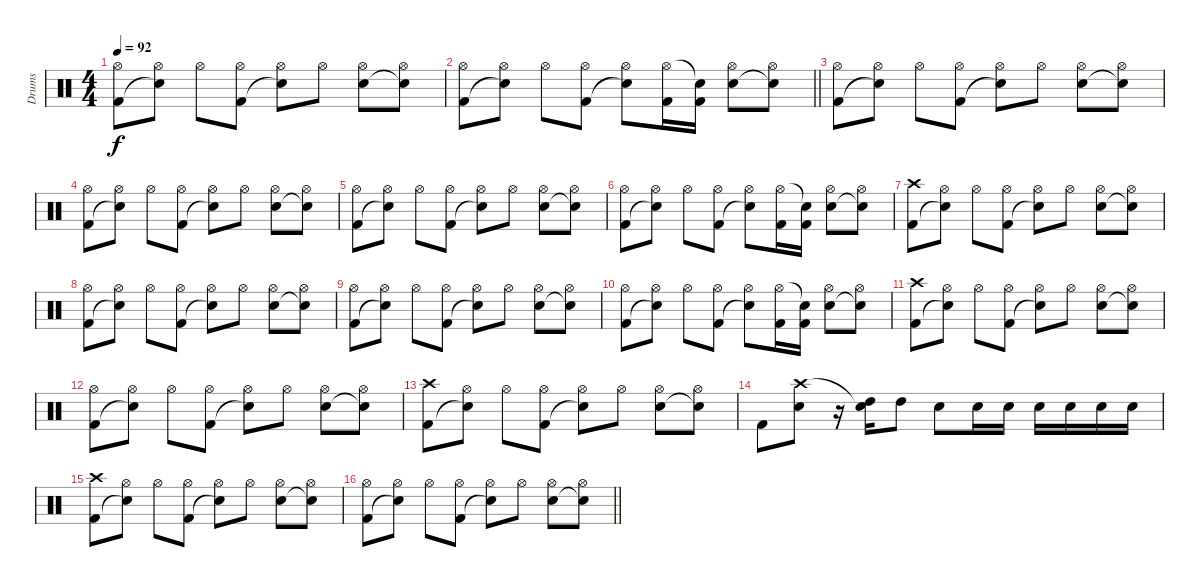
\track ("Drums" "Drums") {instrument percussion}
\staff {score}
\articulation defaults
\ts (4 4)
\tempo 92
\clef neutral
\ks c
("Hi-Hat (open)" "Kick (hit) 2").8{dy f} ("Hi-Hat (open)" "Snare (hit)"{t}).8 "Hi-Hat (open)".8 ("Hi-Hat (open)" "Kick (hit) 2").8 ("Hi-Hat (open)" "Snare (hit)"{t}).8 "Hi-Hat (open)".8 ("Hi-Hat (open)" "Snare (hit) 2").8 ("Hi-Hat (open)" "Snare (hit)"{t}).8 |
\barLineRight lightlight
("Hi-Hat (open)" "Kick (hit) 2").8 ("Hi-Hat (open)" "Snare (hit)"{t}).8 "Hi-Hat (open)".8 ("Hi-Hat (open)" "Kick (hit) 2").8 ("Hi-Hat (open)" "Snare (hit)"{t}).8 ("Hi-Hat (open)" "Kick (hit) 2").16 ("Snare (hit)"{t} "Kick (hit) 2").16 ("Hi-Hat (open)" "Snare (hit) 2").8 ("Hi-Hat (open)" "Snare (hit)"{t}).8 |
("Hi-Hat (open)" "Kick (hit) 2").8 ("Hi-Hat (open)" "Snare (hit)"{t}).8 "Hi-Hat (open)".8 ("Hi-Hat (open)" "Kick (hit) 2").8 ("Hi-Hat (open)" "Snare (hit)"{t}).8 "Hi-Hat (open)".8 ("Hi-Hat (open)" "Snare (hit) 2").8 ("Hi-Hat (open)" "Snare (hit)"{t}).8 |
("Hi-Hat (open)" "Kick (hit) 2").8 ("Hi-Hat (open)" "Snare (hit)"{t}).8 "Hi-Hat (open)".8 ("Hi-Hat (open)" "Kick (hit) 2").8 ("Hi-Hat (open)" "Snare (hit)"{t}).8 "Hi-Hat (open)".8 ("Hi-Hat (open)" "Snare (hit) 2").8 ("Hi-Hat (open)" "Snare (hit)"{t}).8 |
("Hi-Hat (open)" "Kick (hit) 2").8 ("Hi-Hat (open)" "Snare (hit)"{t}).8 "Hi-Hat (open)".8 ("Hi-Hat (open)" "Kick (hit) 2").8 ("Hi-Hat (open)" "Snare (hit)"{t}).8 "Hi-Hat (open)".8 ("Hi-Hat (open)" "Snare (hit) 2").8 ("Hi-Hat (open)" "Snare (hit)"{t}).8 |
("Hi-Hat (open)" "Kick (hit) 2").8 ("Hi-Hat (open)" "Snare (hit)"{t}).8 "Hi-Hat (open)".8 ("Hi-Hat (open)" "Kick (hit) 2").8 ("Hi-Hat (open)" "Snare (hit)"{t}).8 ("Hi-Hat (open)" "Kick (hit) 2").16 ("Snare (hit)"{t} "Kick (hit) 2").16 ("Hi-Hat (open)" "Snare (hit) 2").8 ("Hi-Hat (open)" "Snare (hit)"{t}).8 |
("Crash high (hit)" "Kick (hit) 2").8 ("Hi-Hat (open)" "Snare (hit)"{t}).8 "Hi-Hat (open)".8 ("Hi-Hat (open)" "Kick (hit) 2").8 ("Hi-Hat (open)" "Snare (hit)"{t}).8 "Hi-Hat (open)".8 ("Hi-Hat (open)" "Snare (hit) 2").8 ("Hi-Hat (open)" "Snare (hit)"{t}).8 |
("Hi-Hat (open)" "Kick (hit) 2").8 ("Hi-Hat (open)" "Snare (hit)"{t}).8 "Hi-Hat (open)".8 ("Hi-Hat (open)" "Kick (hit) 2").8 ("Hi-Hat (open)" "Snare (hit)"{t}).8 "Hi-Hat (open)".8 ("Hi-Hat (open)" "Snare (hit) 2").8 ("Hi-Hat (open)" "Snare (hit)"{t}).8 |
("Hi-Hat (open)" "Kick (hit) 2").8 ("Hi-Hat (open)" "Snare (hit)"{t}).8 "Hi-Hat (open)".8 ("Hi-Hat (open)" "Kick (hit) 2").8 ("Hi-Hat (open)" "Snare (hit)"{t}).8 "Hi-Hat (open)".8 ("Hi-Hat (open)" "Snare (hit) 2").8 ("Hi-Hat (open)" "Snare (hit)"{t}).8 |
("Hi-Hat (open)" "Kick (hit) 2").8 ("Hi-Hat (open)" "Snare (hit)"{t}).8 "Hi-Hat (open)".8 ("Hi-Hat (open)" "Kick (hit) 2").8 ("Hi-Hat (open)" "Snare (hit)"{t}).8 ("Hi-Hat (open)" "Kick (hit) 2").16 ("Snare (hit)"{t} "Kick (hit) 2").16 ("Hi-Hat (open)" "Snare (hit) 2").8 ("Hi-Hat (open)" "Snare (hit)"{t}).8 |
("Crash high (hit)" "Kick (hit) 2").8 ("Hi-Hat (open)" "Snare (hit)"{t}).8 "Hi-Hat (open)".8 ("Hi-Hat (open)" "Kick (hit) 2").8 ("Hi-Hat (open)" "Snare (hit)"{t}).8 "Hi-Hat (open)".8 ("Hi-Hat (open)" "Snare (hit) 2").8 ("Hi-Hat (open)" "Snare (hit)"{t}).8 |
("Hi-Hat (open)" "Kick (hit) 2").8 ("Hi-Hat (open)" "Snare (hit)"{t}).8 "Hi-Hat (open)".8 ("Hi-Hat (open)" "Kick (hit) 2").8 ("Hi-Hat (open)" "Snare (hit)"{t}).8 "Hi-Hat (open)".8 ("Hi-Hat (open)" "Snare (hit) 2").8 ("Hi-Hat (open)" "Snare (hit)"{t}).8 |
("Crash high (hit)" "Kick (hit) 2").8 ("Hi-Hat (open)" "Snare (hit)"{t}).8 "Hi-Hat (open)".8 ("Hi-Hat (open)" "Kick (hit) 2").8 ("Hi-Hat (open)" "Snare (hit)"{t}).8 "Hi-Hat (open)".8 ("Hi-Hat (open)" "Snare (hit) 2").8 ("Hi-Hat (open)" "Snare (hit)"{t}).8 |
"Kick (hit) 2".8 ("Crash high (hit)" "Snare (hit) 2").8 r.16 ("Snare (hit)"{t} "High Tom (hit)").16 "High Tom (hit)".8 "Snare (hit) 2".8 "Snare (hit) 2".16 "Snare (hit) 2".16 "Snare (hit) 2".16 "Snare (hit) 2".16 "Snare (hit) 2".16 "Snare (hit) 2".16 |
("Crash high (hit)" "Kick (hit) 2").8 ("Hi-Hat (open)" "Snare (hit)"{t}).8 "Hi-Hat (open)".8 ("Hi-Hat (open)" "Kick (hit) 2").8 ("Hi-Hat (open)" "Snare (hit)"{t}).8 "Hi-Hat (open)".8 ("Hi-Hat (open)" "Snare (hit) 2").8 ("Hi-Hat (open)" "Snare (hit)"{t}).8 |
\barLineRight lightlight
("Hi-Hat (open)" "Kick (hit) 2").8 ("Hi-Hat (open)" "Snare (hit)"{t}).8 "Hi-Hat (open)".8 ("Hi-Hat (open)" "Kick (hit) 2").8 ("Hi-Hat (open)" "Snare (hit)"{t}).8 "Hi-Hat (open)".8 ("Hi-Hat (open)" "Snare (hit) 2").8 ("Hi-Hat (open)" "Snare (hit)"{t}).8
